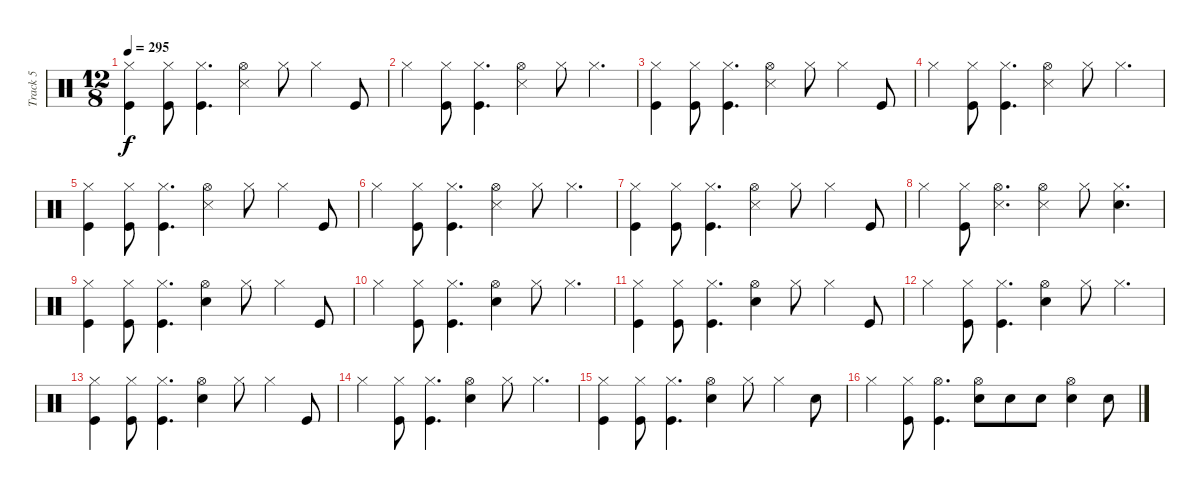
\track ("Track 5" "Track 5") {instrument percussion}
\staff {score}
\articulation defaults
\ts (12 8)
\tempo 295
\clef neutral
\ks c
("Hi-Hat (closed)" "Kick (hit)").4{dy f} ("Hi-Hat (closed)" "Kick (hit)").8 ("Hi-Hat (closed)" "Kick (hit)").4{d} ("Hi-Hat (open)" "Snare (side stick) 3").4 "Hi-Hat (closed)".8 "Hi-Hat (closed)".4 "Kick (hit)".8 |
"Hi-Hat (closed)".4 ("Hi-Hat (closed)" "Kick (hit)").8 ("Hi-Hat (closed)" "Kick (hit)").4{d} ("Hi-Hat (open)" "Snare (side stick) 3").4 "Hi-Hat (closed)".8 "Hi-Hat (closed)".4{d} |
("Hi-Hat (closed)" "Kick (hit)").4 ("Hi-Hat (closed)" "Kick (hit)").8 ("Hi-Hat (closed)" "Kick (hit)").4{d} ("Hi-Hat (open)" "Snare (side stick) 3").4 "Hi-Hat (closed)".8 "Hi-Hat (closed)".4 "Kick (hit)".8 |
"Hi-Hat (closed)".4 ("Hi-Hat (closed)" "Kick (hit)").8 ("Hi-Hat (closed)" "Kick (hit)").4{d} ("Hi-Hat (open)" "Snare (side stick) 3").4 "Hi-Hat (closed)".8 "Hi-Hat (closed)".4{d} |
("Hi-Hat (closed)" "Kick (hit)").4 ("Hi-Hat (closed)" "Kick (hit)").8 ("Hi-Hat (closed)" "Kick (hit)").4{d} ("Hi-Hat (open)" "Snare (side stick) 3").4 "Hi-Hat (closed)".8 "Hi-Hat (closed)".4 "Kick (hit)".8 |
"Hi-Hat (closed)".4 ("Hi-Hat (closed)" "Kick (hit)").8 ("Hi-Hat (closed)" "Kick (hit)").4{d} ("Hi-Hat (open)" "Snare (side stick) 3").4 "Hi-Hat (closed)".8 "Hi-Hat (closed)".4{d} |
("Hi-Hat (closed)" "Kick (hit)").4 ("Hi-Hat (closed)" "Kick (hit)").8 ("Hi-Hat (closed)" "Kick (hit)").4{d} ("Hi-Hat (open)" "Snare (side stick) 3").4 "Hi-Hat (closed)".8 "Hi-Hat (closed)".4 "Kick (hit)".8 |
"Hi-Hat (closed)".4 ("Hi-Hat (closed)" "Kick (hit)").8 ("Hi-Hat (open)" "Snare (side stick) 3").4{d} ("Hi-Hat (open)" "Snare (side stick) 3").4 "Hi-Hat (closed)".8 ("Hi-Hat (closed)" "Electric Snare (hit)").4{d} |
("Hi-Hat (closed)" "Kick (hit)").4 ("Hi-Hat (closed)" "Kick (hit)").8 ("Hi-Hat (closed)" "Kick (hit)").4{d} ("Hi-Hat (open)" "Electric Snare (hit)").4 "Hi-Hat (closed)".8 "Hi-Hat (closed)".4 "Kick (hit)".8 |
"Hi-Hat (closed)".4 ("Hi-Hat (closed)" "Kick (hit)").8 ("Hi-Hat (closed)" "Kick (hit)").4{d} ("Hi-Hat (open)" "Electric Snare (hit)").4 "Hi-Hat (closed)".8 "Hi-Hat (closed)".4{d} |
("Hi-Hat (closed)" "Kick (hit)").4 ("Hi-Hat (closed)" "Kick (hit)").8 ("Hi-Hat (closed)" "Kick (hit)").4{d} ("Hi-Hat (open)" "Electric Snare (hit)").4 "Hi-Hat (closed)".8 "Hi-Hat (closed)".4 "Kick (hit)".8 |
"Hi-Hat (closed)".4 ("Hi-Hat (closed)" "Kick (hit)").8 ("Hi-Hat (closed)" "Kick (hit)").4{d} ("Hi-Hat (open)" "Electric Snare (hit)").4 "Hi-Hat (closed)".8 "Hi-Hat (closed)".4{d} |
("Hi-Hat (closed)" "Kick (hit)").4 ("Hi-Hat (closed)" "Kick (hit)").8 ("Hi-Hat (closed)" "Kick (hit)").4{d} ("Hi-Hat (open)" "Electric Snare (hit)").4 "Hi-Hat (closed)".8 "Hi-Hat (closed)".4 "Kick (hit)".8 |
"Hi-Hat (closed)".4 ("Hi-Hat (closed)" "Kick (hit)").8 ("Hi-Hat (closed)" "Kick (hit)").4{d} ("Hi-Hat (open)" "Electric Snare (hit)").4 "Hi-Hat (closed)".8 "Hi-Hat (closed)".4{d} |
("Hi-Hat (closed)" "Kick (hit)").4 ("Hi-Hat (closed)" "Kick (hit)").8 ("Hi-Hat (closed)" "Kick (hit)").4{d} ("Hi-Hat (open)" "Electric Snare (hit)").4 "Hi-Hat (closed)".8 "Hi-Hat (closed)".4 "Electric Snare (hit)".8 |
"Hi-Hat (closed)".4 ("Hi-Hat (closed)" "Kick (hit)").8 ("Hi-Hat (open)" "Kick (hit)").4{d} ("Hi-Hat (open)" "Electric Snare (hit)").8 "Electric Snare (hit)".8 "Electric Snare (hit)".8 ("Hi-Hat (open)" "Electric Snare (hit)").4 "Electric Snare (hit)".8
